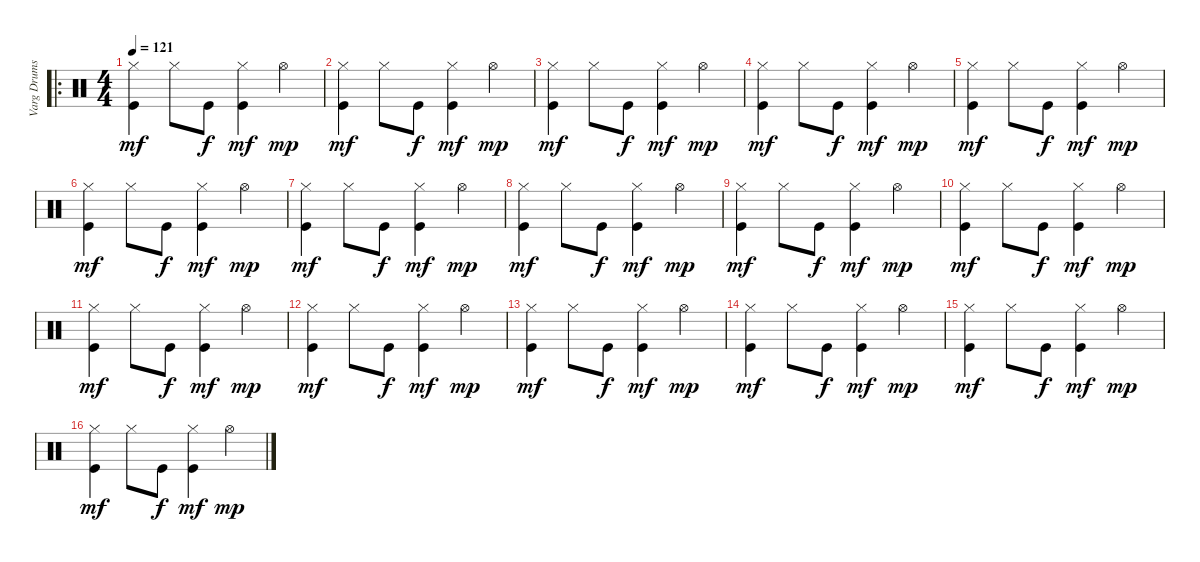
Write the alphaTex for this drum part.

\track ("Varg Drums" "Varg Drums") {instrument percussion}
\staff {score}
\articulation defaults
\ro
\ts (4 4)
\tempo 121
\clef neutral
\ks c
("Hi-Hat (closed)" "Kick (hit)").4{dy mf} "Hi-Hat (closed)".8 "Kick (hit)".8{dy f} ("Hi-Hat (closed)" "Kick (hit)").4{dy mf} "Hi-Hat (open)".4{dy mp} |
("Hi-Hat (closed)" "Kick (hit)").4{dy mf} "Hi-Hat (closed)".8 "Kick (hit)".8{dy f} ("Hi-Hat (closed)" "Kick (hit)").4{dy mf} "Hi-Hat (open)".4{dy mp} |
("Hi-Hat (closed)" "Kick (hit)").4{dy mf} "Hi-Hat (closed)".8 "Kick (hit)".8{dy f} ("Hi-Hat (closed)" "Kick (hit)").4{dy mf} "Hi-Hat (open)".4{dy mp} |
("Hi-Hat (closed)" "Kick (hit)").4{dy mf} "Hi-Hat (closed)".8 "Kick (hit)".8{dy f} ("Hi-Hat (closed)" "Kick (hit)").4{dy mf} "Hi-Hat (open)".4{dy mp} |
("Hi-Hat (closed)" "Kick (hit)").4{dy mf} "Hi-Hat (closed)".8 "Kick (hit)".8{dy f} ("Hi-Hat (closed)" "Kick (hit)").4{dy mf} "Hi-Hat (open)".4{dy mp} |
("Hi-Hat (closed)" "Kick (hit)").4{dy mf} "Hi-Hat (closed)".8 "Kick (hit)".8{dy f} ("Hi-Hat (closed)" "Kick (hit)").4{dy mf} "Hi-Hat (open)".4{dy mp} |
("Hi-Hat (closed)" "Kick (hit)").4{dy mf} "Hi-Hat (closed)".8 "Kick (hit)".8{dy f} ("Hi-Hat (closed)" "Kick (hit)").4{dy mf} "Hi-Hat (open)".4{dy mp} |
("Hi-Hat (closed)" "Kick (hit)").4{dy mf} "Hi-Hat (closed)".8 "Kick (hit)".8{dy f} ("Hi-Hat (closed)" "Kick (hit)").4{dy mf} "Hi-Hat (open)".4{dy mp} |
("Hi-Hat (closed)" "Kick (hit)").4{dy mf} "Hi-Hat (closed)".8 "Kick (hit)".8{dy f} ("Hi-Hat (closed)" "Kick (hit)").4{dy mf} "Hi-Hat (open)".4{dy mp} |
("Hi-Hat (closed)" "Kick (hit)").4{dy mf} "Hi-Hat (closed)".8 "Kick (hit)".8{dy f} ("Hi-Hat (closed)" "Kick (hit)").4{dy mf} "Hi-Hat (open)".4{dy mp} |
("Hi-Hat (closed)" "Kick (hit)").4{dy mf} "Hi-Hat (closed)".8 "Kick (hit)".8{dy f} ("Hi-Hat (closed)" "Kick (hit)").4{dy mf} "Hi-Hat (open)".4{dy mp} |
("Hi-Hat (closed)" "Kick (hit)").4{dy mf} "Hi-Hat (closed)".8 "Kick (hit)".8{dy f} ("Hi-Hat (closed)" "Kick (hit)").4{dy mf} "Hi-Hat (open)".4{dy mp} |
("Hi-Hat (closed)" "Kick (hit)").4{dy mf} "Hi-Hat (closed)".8 "Kick (hit)".8{dy f} ("Hi-Hat (closed)" "Kick (hit)").4{dy mf} "Hi-Hat (open)".4{dy mp} |
("Hi-Hat (closed)" "Kick (hit)").4{dy mf} "Hi-Hat (closed)".8 "Kick (hit)".8{dy f} ("Hi-Hat (closed)" "Kick (hit)").4{dy mf} "Hi-Hat (open)".4{dy mp} |
("Hi-Hat (closed)" "Kick (hit)").4{dy mf} "Hi-Hat (closed)".8 "Kick (hit)".8{dy f} ("Hi-Hat (closed)" "Kick (hit)").4{dy mf} "Hi-Hat (open)".4{dy mp} |
("Hi-Hat (closed)" "Kick (hit)").4{dy mf} "Hi-Hat (closed)".8 "Kick (hit)".8{dy f} ("Hi-Hat (closed)" "Kick (hit)").4{dy mf} "Hi-Hat (open)".4{dy mp}
